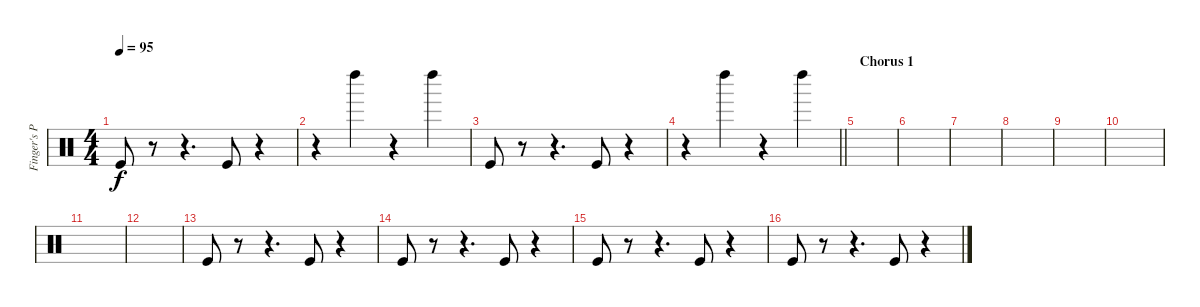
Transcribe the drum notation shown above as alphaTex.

\track ("Finger's Percussive" "Finger's P") {instrument percussion}
\staff {score}
\articulation defaults
\ts (4 4)
\tempo 95
\clef neutral
\ks c "Kick (hit)".8{dy f}
r.8 r.4{d} "Kick (hit)".8 r.4 |
r.4 "Left Maraca (hit)".4 r.4 "Left Maraca (hit)".4 |
"Kick (hit)".8 r.8 r.4{d} "Kick (hit)".8 r.4 |
\barLineRight lightlight
r.4 "Left Maraca (hit)".4 r.4 "Left Maraca (hit)".4 |
\section ("" "Chorus 1")
|
|
|
|
|
|
|
|
"Kick (hit)".8 r.8 r.4{d} "Kick (hit)".8 r.4 |
"Kick (hit)".8 r.8 r.4{d} "Kick (hit)".8 r.4 |
"Kick (hit)".8 r.8 r.4{d} "Kick (hit)".8 r.4 |
"Kick (hit)".8 r.8 r.4{d} "Kick (hit)".8 r.4
